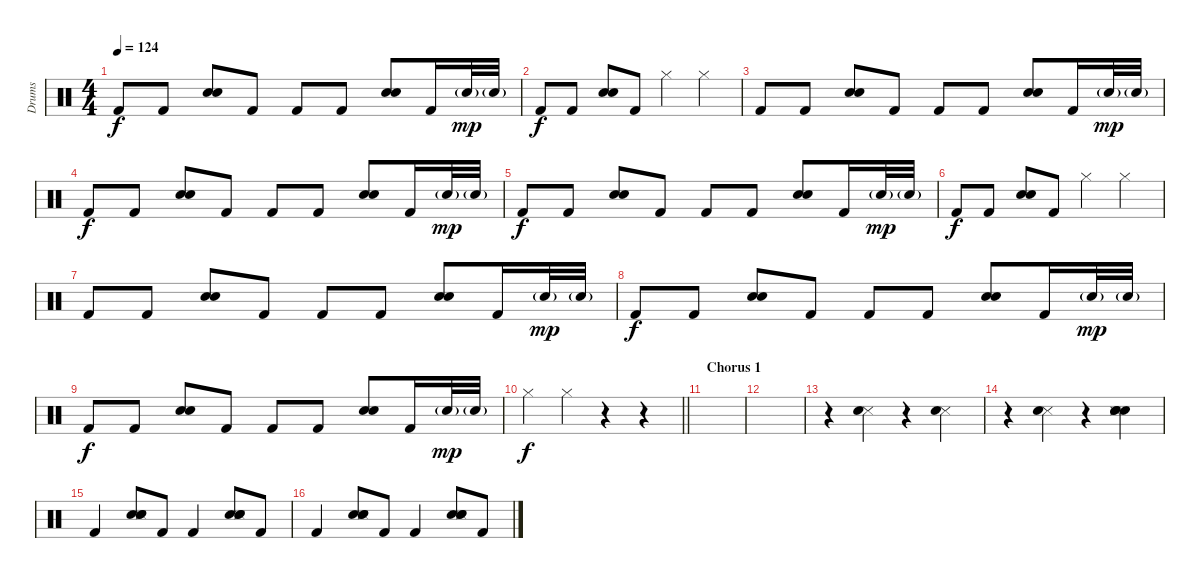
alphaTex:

\track ("Drums" "Drums") {instrument percussion}
\staff {score}
\articulation defaults
\ts (4 4)
\tempo 124
\clef neutral
\ks c "Kick (hit) 2".8{dy f} "Kick (hit) 2".8
("Snare (hit) 2" "Electric Snare (hit)").8 "Kick (hit) 2".8 "Kick (hit) 2".8 "Kick (hit) 2".8 ("Snare (hit) 2" "Electric Snare (hit)").8 "Kick (hit) 2".16 "Electric Snare (hit)"{g}.32{dy mp} "Electric Snare (hit)"{g}.32 |
"Kick (hit) 2".8{dy f} "Kick (hit) 2".8 ("Snare (hit) 2" "Electric Snare (hit)").8 "Kick (hit) 2".8 "Hi-Hat (closed)".4 "Hi-Hat (closed)".4 |
"Kick (hit) 2".8 "Kick (hit) 2".8 ("Snare (hit) 2" "Electric Snare (hit)").8 "Kick (hit) 2".8 "Kick (hit) 2".8 "Kick (hit) 2".8 ("Snare (hit) 2" "Electric Snare (hit)").8 "Kick (hit) 2".16 "Electric Snare (hit)"{g}.32{dy mp} "Electric Snare (hit)"{g}.32 |
"Kick (hit) 2".8{dy f} "Kick (hit) 2".8 ("Snare (hit) 2" "Electric Snare (hit)").8 "Kick (hit) 2".8 "Kick (hit) 2".8 "Kick (hit) 2".8 ("Snare (hit) 2" "Electric Snare (hit)").8 "Kick (hit) 2".16 "Electric Snare (hit)"{g}.32{dy mp} "Electric Snare (hit)"{g}.32 |
"Kick (hit) 2".8{dy f} "Kick (hit) 2".8 ("Snare (hit) 2" "Electric Snare (hit)").8 "Kick (hit) 2".8 "Kick (hit) 2".8 "Kick (hit) 2".8 ("Snare (hit) 2" "Electric Snare (hit)").8 "Kick (hit) 2".16 "Electric Snare (hit)"{g}.32{dy mp} "Electric Snare (hit)"{g}.32 |
"Kick (hit) 2".8{dy f} "Kick (hit) 2".8 ("Snare (hit) 2" "Electric Snare (hit)").8 "Kick (hit) 2".8 "Hi-Hat (closed)".4 "Hi-Hat (closed)".4 |
"Kick (hit) 2".8 "Kick (hit) 2".8 ("Snare (hit) 2" "Electric Snare (hit)").8 "Kick (hit) 2".8 "Kick (hit) 2".8 "Kick (hit) 2".8 ("Snare (hit) 2" "Electric Snare (hit)").8 "Kick (hit) 2".16 "Electric Snare (hit)"{g}.32{dy mp} "Electric Snare (hit)"{g}.32 |
"Kick (hit) 2".8{dy f} "Kick (hit) 2".8 ("Snare (hit) 2" "Electric Snare (hit)").8 "Kick (hit) 2".8 "Kick (hit) 2".8 "Kick (hit) 2".8 ("Snare (hit) 2" "Electric Snare (hit)").8 "Kick (hit) 2".16 "Electric Snare (hit)"{g}.32{dy mp} "Electric Snare (hit)"{g}.32 |
"Kick (hit) 2".8{dy f} "Kick (hit) 2".8 ("Snare (hit) 2" "Electric Snare (hit)").8 "Kick (hit) 2".8 "Kick (hit) 2".8 "Kick (hit) 2".8 ("Snare (hit) 2" "Electric Snare (hit)").8 "Kick (hit) 2".16 "Electric Snare (hit)"{g}.32{dy mp} "Electric Snare (hit)"{g}.32 |
\barLineRight lightlight "Hi-Hat (closed)".4{dy f} "Hi-Hat (closed)".4
r.4 r.4 |
\section ("" "Chorus 1 ")
|
|
r.4 ("Snare (side stick) 3" "Hand Clap (hit)").4 r.4 ("Snare (side stick) 3" "Hand Clap (hit)").4 |
r.4 ("Snare (side stick) 3" "Hand Clap (hit)").4 r.4 ("Snare (hit) 2" "Snare (side stick) 3" "Hand Clap (hit)" "Electric Snare (hit)").4 |
"Kick (hit) 2".4 ("Snare (hit) 2" "Snare (side stick) 3" "Hand Clap (hit)" "Electric Snare (hit)").8 "Kick (hit) 2".8 "Kick (hit) 2".4 ("Snare (hit) 2" "Snare (side stick) 3" "Hand Clap (hit)" "Electric Snare (hit)").8 "Kick (hit) 2".8 |
"Kick (hit) 2".4 ("Snare (hit) 2" "Snare (side stick) 3" "Hand Clap (hit)" "Electric Snare (hit)").8 "Kick (hit) 2".8 "Kick (hit) 2".4 ("Snare (hit) 2" "Snare (side stick) 3" "Hand Clap (hit)" "Electric Snare (hit)").8 "Kick (hit) 2".8
